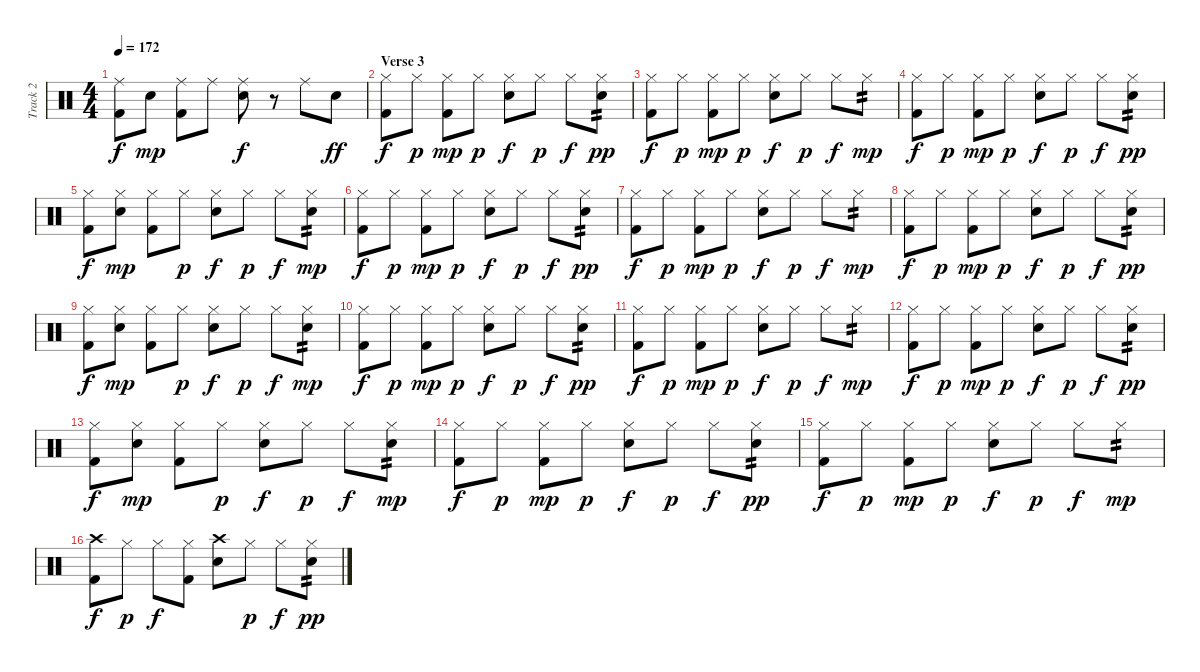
\track ("Track 2" "Track 2") {instrument percussion}
\staff {score}
\articulation defaults
\ts (4 4)
\tempo 172
\clef neutral
\ks c
("Ride (middle)" "Kick (hit) 2").8{dy f} "Snare (hit) 2".8{dy mp} ("Ride (middle)" "Kick (hit) 2").8 "Ride (middle)".8 ("Ride (middle)" "Snare (hit) 2").8{dy f} r.8 "Ride (middle)".8 "Snare (hit) 2".8{dy ff} |
\section ("" "Verse 3")
("Hi-Hat (closed)" "Kick (hit) 2").8{dy f} "Hi-Hat (closed)".8{dy p} ("Hi-Hat (closed)" "Kick (hit) 2").8{dy mp} "Hi-Hat (closed)".8{dy p} ("Hi-Hat (closed)" "Snare (hit) 2").8{dy f} "Hi-Hat (closed)".8{dy p} "Hi-Hat (closed)".8{dy f} ("Hi-Hat (closed)" "Snare (hit) 2").8{tp 2 dy pp} |
("Hi-Hat (closed)" "Kick (hit) 2").8{dy f} "Hi-Hat (closed)".8{dy p} ("Hi-Hat (closed)" "Kick (hit) 2").8{dy mp} "Hi-Hat (closed)".8{dy p} ("Hi-Hat (closed)" "Snare (hit) 2").8{dy f} "Hi-Hat (closed)".8{dy p} "Hi-Hat (closed)".8{dy f} "Hi-Hat (closed)".8{tp 2 dy mp} |
("Hi-Hat (closed)" "Kick (hit) 2").8{dy f} "Hi-Hat (closed)".8{dy p} ("Hi-Hat (closed)" "Kick (hit) 2").8{dy mp} "Hi-Hat (closed)".8{dy p} ("Hi-Hat (closed)" "Snare (hit) 2").8{dy f} "Hi-Hat (closed)".8{dy p} "Hi-Hat (closed)".8{dy f} ("Hi-Hat (closed)" "Snare (hit) 2").8{tp 2 dy pp} |
("Hi-Hat (closed)" "Kick (hit) 2").8{dy f} ("Hi-Hat (closed)" "Snare (hit) 2").8{dy mp} ("Hi-Hat (closed)" "Kick (hit) 2").8 "Hi-Hat (closed)".8{dy p} ("Hi-Hat (closed)" "Snare (hit) 2").8{dy f} "Hi-Hat (closed)".8{dy p} "Hi-Hat (closed)".8{dy f} ("Hi-Hat (closed)" "Snare (hit) 2").8{tp 2 dy mp} |
("Hi-Hat (closed)" "Kick (hit) 2").8{dy f} "Hi-Hat (closed)".8{dy p} ("Hi-Hat (closed)" "Kick (hit) 2").8{dy mp} "Hi-Hat (closed)".8{dy p} ("Hi-Hat (closed)" "Snare (hit) 2").8{dy f} "Hi-Hat (closed)".8{dy p} "Hi-Hat (closed)".8{dy f} ("Hi-Hat (closed)" "Snare (hit) 2").8{tp 2 dy pp} |
("Hi-Hat (closed)" "Kick (hit) 2").8{dy f} "Hi-Hat (closed)".8{dy p} ("Hi-Hat (closed)" "Kick (hit) 2").8{dy mp} "Hi-Hat (closed)".8{dy p} ("Hi-Hat (closed)" "Snare (hit) 2").8{dy f} "Hi-Hat (closed)".8{dy p} "Hi-Hat (closed)".8{dy f} "Hi-Hat (closed)".8{tp 2 dy mp} |
("Hi-Hat (closed)" "Kick (hit) 2").8{dy f} "Hi-Hat (closed)".8{dy p} ("Hi-Hat (closed)" "Kick (hit) 2").8{dy mp} "Hi-Hat (closed)".8{dy p} ("Hi-Hat (closed)" "Snare (hit) 2").8{dy f} "Hi-Hat (closed)".8{dy p} "Hi-Hat (closed)".8{dy f} ("Hi-Hat (closed)" "Snare (hit) 2").8{tp 2 dy pp} |
("Hi-Hat (closed)" "Kick (hit) 2").8{dy f} ("Hi-Hat (closed)" "Snare (hit) 2").8{dy mp} ("Hi-Hat (closed)" "Kick (hit) 2").8 "Hi-Hat (closed)".8{dy p} ("Hi-Hat (closed)" "Snare (hit) 2").8{dy f} "Hi-Hat (closed)".8{dy p} "Hi-Hat (closed)".8{dy f} ("Hi-Hat (closed)" "Snare (hit) 2").8{tp 2 dy mp} |
("Hi-Hat (closed)" "Kick (hit) 2").8{dy f} "Hi-Hat (closed)".8{dy p} ("Hi-Hat (closed)" "Kick (hit) 2").8{dy mp} "Hi-Hat (closed)".8{dy p} ("Hi-Hat (closed)" "Snare (hit) 2").8{dy f} "Hi-Hat (closed)".8{dy p} "Hi-Hat (closed)".8{dy f} ("Hi-Hat (closed)" "Snare (hit) 2").8{tp 2 dy pp} |
("Hi-Hat (closed)" "Kick (hit) 2").8{dy f} "Hi-Hat (closed)".8{dy p} ("Hi-Hat (closed)" "Kick (hit) 2").8{dy mp} "Hi-Hat (closed)".8{dy p} ("Hi-Hat (closed)" "Snare (hit) 2").8{dy f} "Hi-Hat (closed)".8{dy p} "Hi-Hat (closed)".8{dy f} "Hi-Hat (closed)".8{tp 2 dy mp} |
("Hi-Hat (closed)" "Kick (hit) 2").8{dy f} "Hi-Hat (closed)".8{dy p} ("Hi-Hat (closed)" "Kick (hit) 2").8{dy mp} "Hi-Hat (closed)".8{dy p} ("Hi-Hat (closed)" "Snare (hit) 2").8{dy f} "Hi-Hat (closed)".8{dy p} "Hi-Hat (closed)".8{dy f} ("Hi-Hat (closed)" "Snare (hit) 2").8{tp 2 dy pp} |
("Hi-Hat (closed)" "Kick (hit) 2").8{dy f} ("Hi-Hat (closed)" "Snare (hit) 2").8{dy mp} ("Hi-Hat (closed)" "Kick (hit) 2").8 "Hi-Hat (closed)".8{dy p} ("Hi-Hat (closed)" "Snare (hit) 2").8{dy f} "Hi-Hat (closed)".8{dy p} "Hi-Hat (closed)".8{dy f} ("Hi-Hat (closed)" "Snare (hit) 2").8{tp 2 dy mp} |
("Hi-Hat (closed)" "Kick (hit) 2").8{dy f} "Hi-Hat (closed)".8{dy p} ("Hi-Hat (closed)" "Kick (hit) 2").8{dy mp} "Hi-Hat (closed)".8{dy p} ("Hi-Hat (closed)" "Snare (hit) 2").8{dy f} "Hi-Hat (closed)".8{dy p} "Hi-Hat (closed)".8{dy f} ("Hi-Hat (closed)" "Snare (hit) 2").8{tp 2 dy pp} |
("Hi-Hat (closed)" "Kick (hit) 2").8{dy f} "Hi-Hat (closed)".8{dy p} ("Hi-Hat (closed)" "Kick (hit) 2").8{dy mp} "Hi-Hat (closed)".8{dy p} ("Hi-Hat (closed)" "Snare (hit) 2").8{dy f} "Hi-Hat (closed)".8{dy p} "Hi-Hat (closed)".8{dy f} "Hi-Hat (closed)".8{tp 2 dy mp} |
("Crash high (hit)" "Kick (hit) 2").8{dy f} "Hi-Hat (closed)".8{dy p} "Hi-Hat (closed)".8{dy f} ("Hi-Hat (closed)" "Kick (hit) 2").8 ("Crash high (hit)" "Snare (hit) 2").8 "Hi-Hat (closed)".8{dy p} "Hi-Hat (closed)".8{dy f} ("Hi-Hat (closed)" "Snare (hit) 2").8{tp 2 dy pp}
